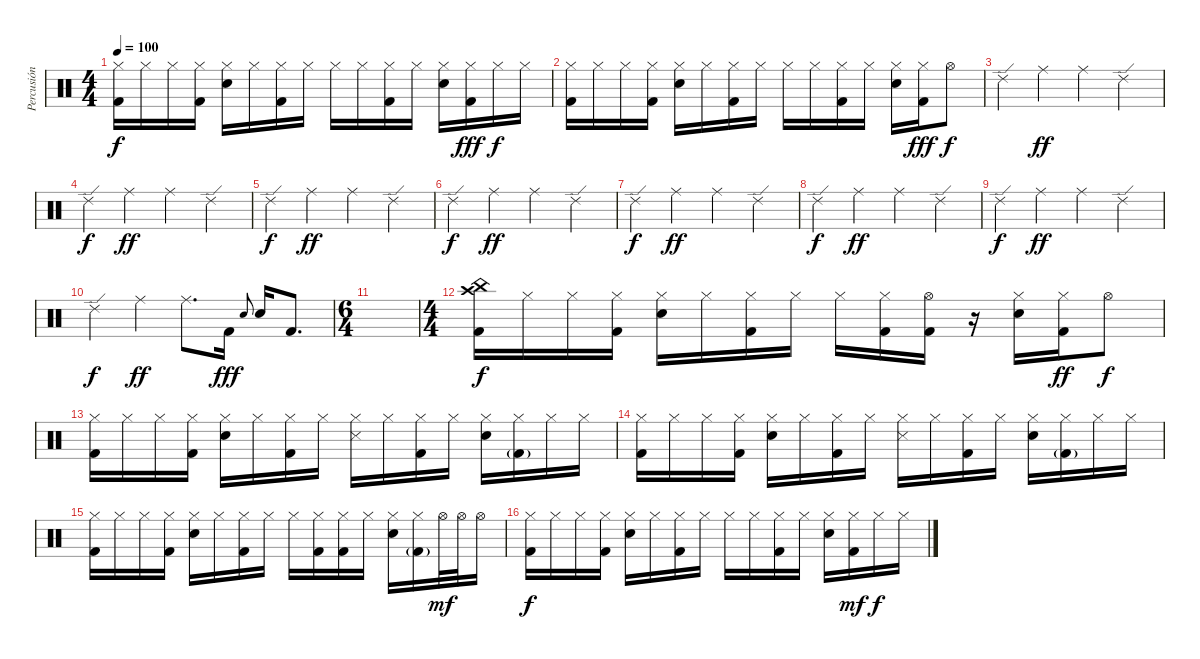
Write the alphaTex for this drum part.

\track ("Percusión" "Percusión") {instrument percussion}
\staff {score}
\articulation defaults
\ts (4 4)
\tempo 100
\clef neutral
\ks c
("Kick (hit) 2" "Hi-Hat (closed)").16{dy f} "Hi-Hat (closed)".16 "Hi-Hat (closed)".16 ("Kick (hit) 2" "Hi-Hat (closed)").16 ("Snare (hit) 2" "Hi-Hat (closed)").16 "Hi-Hat (closed)".16 ("Kick (hit) 2" "Hi-Hat (closed)").16 "Hi-Hat (closed)".16 "Hi-Hat (closed)".16 "Hi-Hat (closed)".16 ("Kick (hit) 2" "Hi-Hat (closed)").16 "Hi-Hat (closed)".16 ("Snare (hit) 2" "Hi-Hat (closed)").16 ("Kick (hit) 2" "Hi-Hat (closed)").16{dy fff} "Hi-Hat (closed)".16{dy f} "Hi-Hat (closed)".16 |
("Kick (hit) 2" "Hi-Hat (closed)").16 "Hi-Hat (closed)".16 "Hi-Hat (closed)".16 ("Kick (hit) 2" "Hi-Hat (closed)").16 ("Snare (hit) 2" "Hi-Hat (closed)").16 "Hi-Hat (closed)".16 ("Kick (hit) 2" "Hi-Hat (closed)").16 "Hi-Hat (closed)".16 "Hi-Hat (closed)".16 "Hi-Hat (closed)".16 ("Kick (hit) 2" "Hi-Hat (closed)").16 "Hi-Hat (closed)".16 ("Snare (hit) 2" "Hi-Hat (closed)").16 ("Kick (hit) 2" "Hi-Hat (closed)").16{dy fff} "Hi-Hat (open)".8{dy f} |
"Ride (edge) 2".4 "Ride (middle)".4{dy ff} "Ride (middle)".4 "Ride (edge) 2".4 |
"Ride (edge) 2".4{dy f} "Ride (middle)".4{dy ff} "Ride (middle)".4 "Ride (edge) 2".4 |
"Ride (edge) 2".4{dy f} "Ride (middle)".4{dy ff} "Ride (middle)".4 "Ride (edge) 2".4 |
"Ride (edge) 2".4{dy f} "Ride (middle)".4{dy ff} "Ride (middle)".4 "Ride (edge) 2".4 |
"Ride (edge) 2".4{dy f} "Ride (middle)".4{dy ff} "Ride (middle)".4 "Ride (edge) 2".4 |
"Ride (edge) 2".4{dy f} "Ride (middle)".4{dy ff} "Ride (middle)".4 "Ride (edge) 2".4 |
"Ride (edge) 2".4{dy f} "Ride (middle)".4{dy ff} "Ride (middle)".4 "Ride (edge) 2".4 |
"Ride (edge) 2".4{dy f} "Ride (middle)".4{dy ff} "Ride (middle)".8{d} "Kick (hit) 2".16{dy fff} "Snare (hit) 2".8{gr onbeat} "Snare (hit) 2".16 "Kick (hit) 2".8{d} |
\ts (6 4)
|
\ts (4 4)
("China (hit)" "Kick (hit) 2" "Crash high (hit)").16{dy f} "Hi-Hat (closed)".16 "Hi-Hat (closed)".16 ("Kick (hit) 2" "Hi-Hat (closed)").16 ("Snare (hit) 2" "Hi-Hat (closed)").16 "Hi-Hat (closed)".16 ("Kick (hit) 2" "Hi-Hat (closed)").16 "Hi-Hat (closed)".16 "Hi-Hat (closed)".16 ("Kick (hit) 2" "Hi-Hat (closed)").16 ("Kick (hit) 2" "Hi-Hat (open)").16 r.16 ("Snare (hit) 2" "Hi-Hat (closed)").16 ("Kick (hit) 2" "Hi-Hat (closed)").16{dy ff} "Hi-Hat (open)".8{dy f} |
("Kick (hit) 2" "Hi-Hat (closed)").16 "Hi-Hat (closed)".16 "Hi-Hat (closed)".16 ("Kick (hit) 2" "Hi-Hat (closed)").16 ("Snare (hit) 2" "Hi-Hat (closed)").16 "Hi-Hat (closed)".16 ("Kick (hit) 2" "Hi-Hat (closed)").16 "Hi-Hat (closed)".16 ("Snare (side stick) 3" "Hi-Hat (closed)").16 "Hi-Hat (closed)".16 ("Kick (hit) 2" "Hi-Hat (closed)").16 "Hi-Hat (closed)".16 ("Snare (hit) 2" "Hi-Hat (closed)").16 ("Kick (hit) 2"{g} "Hi-Hat (closed)").16 "Hi-Hat (closed)".16 "Hi-Hat (closed)".16 |
("Kick (hit) 2" "Hi-Hat (closed)").16 "Hi-Hat (closed)".16 "Hi-Hat (closed)".16 ("Kick (hit) 2" "Hi-Hat (closed)").16 ("Snare (hit) 2" "Hi-Hat (closed)").16 "Hi-Hat (closed)".16 ("Kick (hit) 2" "Hi-Hat (closed)").16 "Hi-Hat (closed)".16 ("Snare (side stick) 3" "Hi-Hat (closed)").16 "Hi-Hat (closed)".16 ("Kick (hit) 2" "Hi-Hat (closed)").16 "Hi-Hat (closed)".16 ("Snare (hit) 2" "Hi-Hat (closed)").16 ("Kick (hit) 2"{g} "Hi-Hat (closed)").16 "Hi-Hat (closed)".16 "Hi-Hat (closed)".16 |
("Kick (hit) 2" "Hi-Hat (closed)").16 "Hi-Hat (closed)".16 "Hi-Hat (closed)".16 ("Kick (hit) 2" "Hi-Hat (closed)").16 ("Snare (hit) 2" "Hi-Hat (closed)").16 "Hi-Hat (closed)".16 ("Kick (hit) 2" "Hi-Hat (closed)").16 "Hi-Hat (closed)".16 "Hi-Hat (closed)".16 ("Kick (hit) 2" "Hi-Hat (closed)").16 ("Kick (hit) 2" "Hi-Hat (closed)").16 "Hi-Hat (closed)".16 ("Snare (hit) 2" "Hi-Hat (closed)").16 ("Kick (hit) 2"{g} "Hi-Hat (closed)").16 "Hi-Hat (open)".32{dy mf} "Hi-Hat (open)".32 "Hi-Hat (open)".16 |
("Kick (hit) 2" "Hi-Hat (closed)").16{dy f} "Hi-Hat (closed)".16 "Hi-Hat (closed)".16 ("Kick (hit) 2" "Hi-Hat (closed)").16 ("Snare (hit) 2" "Hi-Hat (closed)").16 "Hi-Hat (closed)".16 ("Kick (hit) 2" "Hi-Hat (closed)").16 "Hi-Hat (closed)".16 "Hi-Hat (closed)".16 "Hi-Hat (closed)".16 ("Kick (hit) 2" "Hi-Hat (closed)").16 "Hi-Hat (closed)".16 ("Snare (hit) 2" "Hi-Hat (closed)").16 ("Kick (hit) 2" "Hi-Hat (closed)").16{dy mf} "Hi-Hat (closed)".16{dy f} "Hi-Hat (closed)".16
